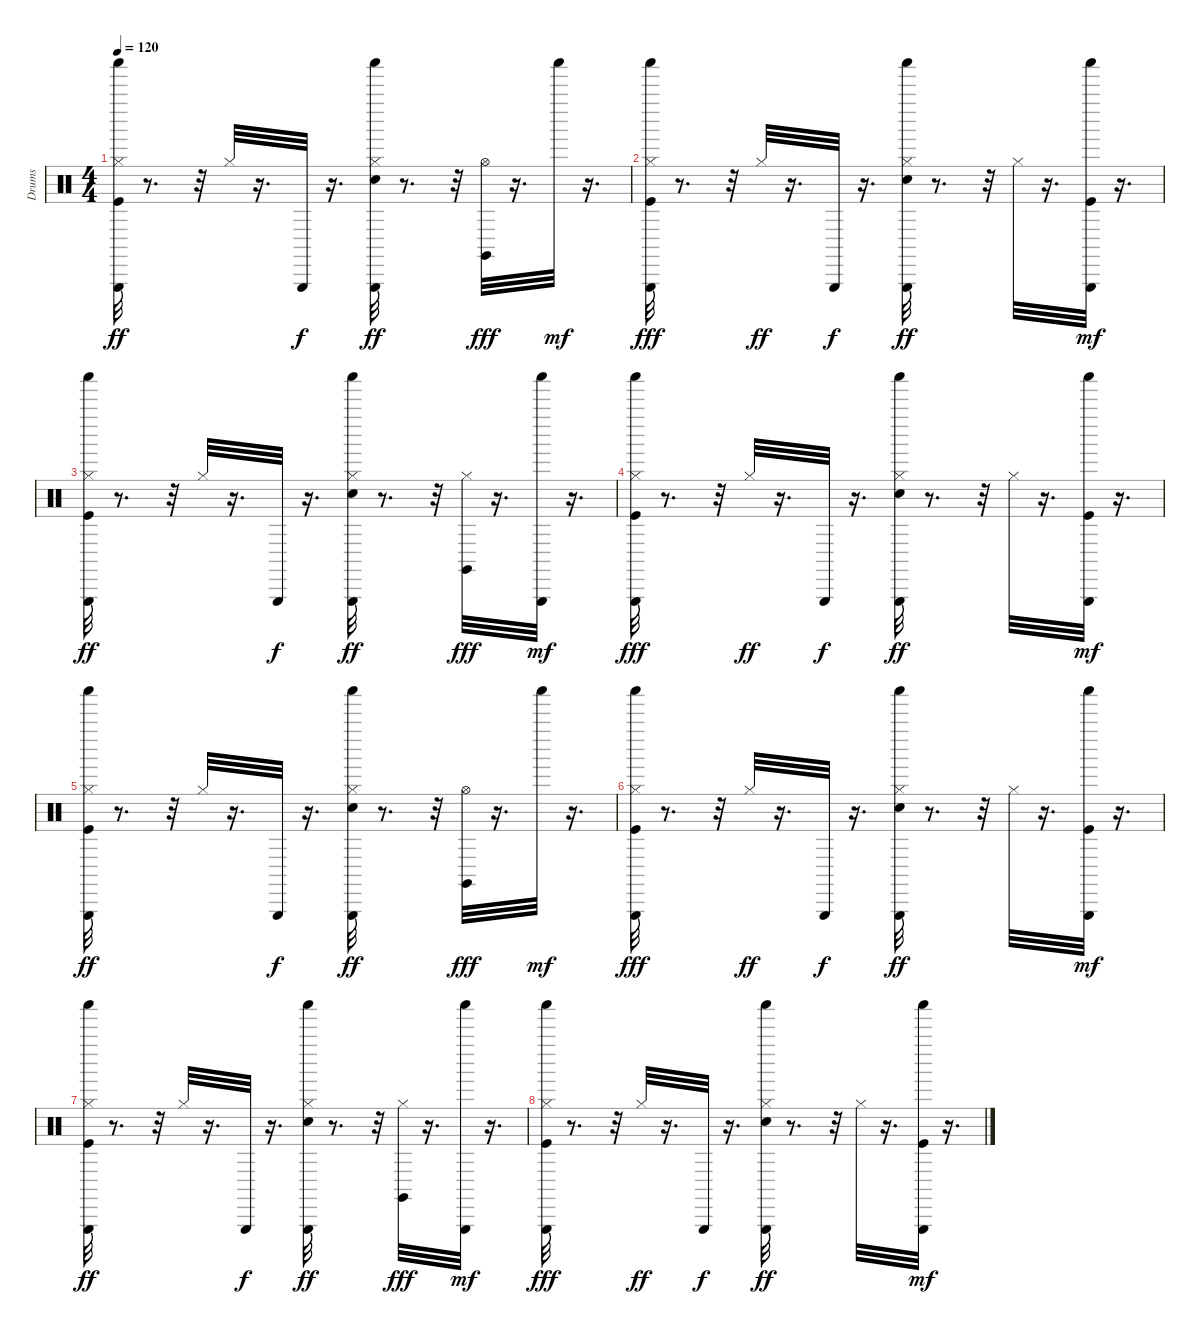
\track ("Drums" "Drums") {instrument percussion}
\staff {score}
\articulation defaults
\ts (4 4)
\tempo 120
\clef neutral
\ks c
("Shaker (hit)" "Triangle (hit)" "Kick (hit)" "Hi-Hat (closed)").32{dy ff} r.8{d} r.32 "Hi-Hat (closed)".32 r.16{d} "Triangle (hit)".32{dy f} r.16{d} ("Shaker (hit)" "Triangle (hit)" "Electric Snare (hit)" "Hi-Hat (closed)").32{dy ff} r.8{d} r.32 ("Hi-Hat (open)" "Claves (hit)").32{dy fff} r.16{d} "Shaker (hit)".32{dy mf} r.16{d} |
("Shaker (hit)" "Triangle (hit)" "Hi-Hat (closed)" "Kick (hit)").32{dy fff} r.8{d} r.32 "Hi-Hat (closed)".32{dy ff} r.16{d} "Triangle (hit)".32{dy f} r.16{d} ("Shaker (hit)" "Triangle (hit)" "Electric Snare (hit)" "Hi-Hat (closed)").32{dy ff} r.8{d} r.32 "Hi-Hat (closed)".32 r.16{d} ("Kick (hit)" "Shaker (hit)" "Triangle (hit)").32{dy mf} r.16{d} |
("Shaker (hit)" "Triangle (hit)" "Kick (hit)" "Hi-Hat (closed)").32{dy ff} r.8{d} r.32 "Hi-Hat (closed)".32 r.16{d} "Triangle (hit)".32{dy f} r.16{d} ("Shaker (hit)" "Triangle (hit)" "Electric Snare (hit)" "Hi-Hat (closed)").32{dy ff} r.8{d} r.32 ("Hi-Hat (closed)" "Claves (hit)").32{dy fff} r.16{d} ("Shaker (hit)" "Triangle (hit)").32{dy mf} r.16{d} |
("Shaker (hit)" "Triangle (hit)" "Hi-Hat (closed)" "Kick (hit)").32{dy fff} r.8{d} r.32 "Hi-Hat (closed)".32{dy ff} r.16{d} "Triangle (hit)".32{dy f} r.16{d} ("Shaker (hit)" "Triangle (hit)" "Electric Snare (hit)" "Hi-Hat (closed)").32{dy ff} r.8{d} r.32 "Hi-Hat (closed)".32 r.16{d} ("Kick (hit)" "Shaker (hit)" "Triangle (hit)").32{dy mf} r.16{d} |
("Shaker (hit)" "Triangle (hit)" "Kick (hit)" "Hi-Hat (closed)").32{dy ff} r.8{d} r.32 "Hi-Hat (closed)".32 r.16{d} "Triangle (hit)".32{dy f} r.16{d} ("Shaker (hit)" "Triangle (hit)" "Electric Snare (hit)" "Hi-Hat (closed)").32{dy ff} r.8{d} r.32 ("Hi-Hat (open)" "Claves (hit)").32{dy fff} r.16{d} "Shaker (hit)".32{dy mf} r.16{d} |
("Shaker (hit)" "Triangle (hit)" "Hi-Hat (closed)" "Kick (hit)").32{dy fff} r.8{d} r.32 "Hi-Hat (closed)".32{dy ff} r.16{d} "Triangle (hit)".32{dy f} r.16{d} ("Shaker (hit)" "Triangle (hit)" "Electric Snare (hit)" "Hi-Hat (closed)").32{dy ff} r.8{d} r.32 "Hi-Hat (closed)".32 r.16{d} ("Kick (hit)" "Shaker (hit)" "Triangle (hit)").32{dy mf} r.16{d} |
("Shaker (hit)" "Triangle (hit)" "Kick (hit)" "Hi-Hat (closed)").32{dy ff} r.8{d} r.32 "Hi-Hat (closed)".32 r.16{d} "Triangle (hit)".32{dy f} r.16{d} ("Shaker (hit)" "Triangle (hit)" "Electric Snare (hit)" "Hi-Hat (closed)").32{dy ff} r.8{d} r.32 ("Hi-Hat (closed)" "Claves (hit)").32{dy fff} r.16{d} ("Shaker (hit)" "Triangle (hit)").32{dy mf} r.16{d} |
("Shaker (hit)" "Triangle (hit)" "Hi-Hat (closed)" "Kick (hit)").32{dy fff} r.8{d} r.32 "Hi-Hat (closed)".32{dy ff} r.16{d} "Triangle (hit)".32{dy f} r.16{d} ("Shaker (hit)" "Triangle (hit)" "Electric Snare (hit)" "Hi-Hat (closed)").32{dy ff} r.8{d} r.32 "Hi-Hat (closed)".32 r.16{d} ("Kick (hit)" "Shaker (hit)" "Triangle (hit)").32{dy mf} r.16{d}
